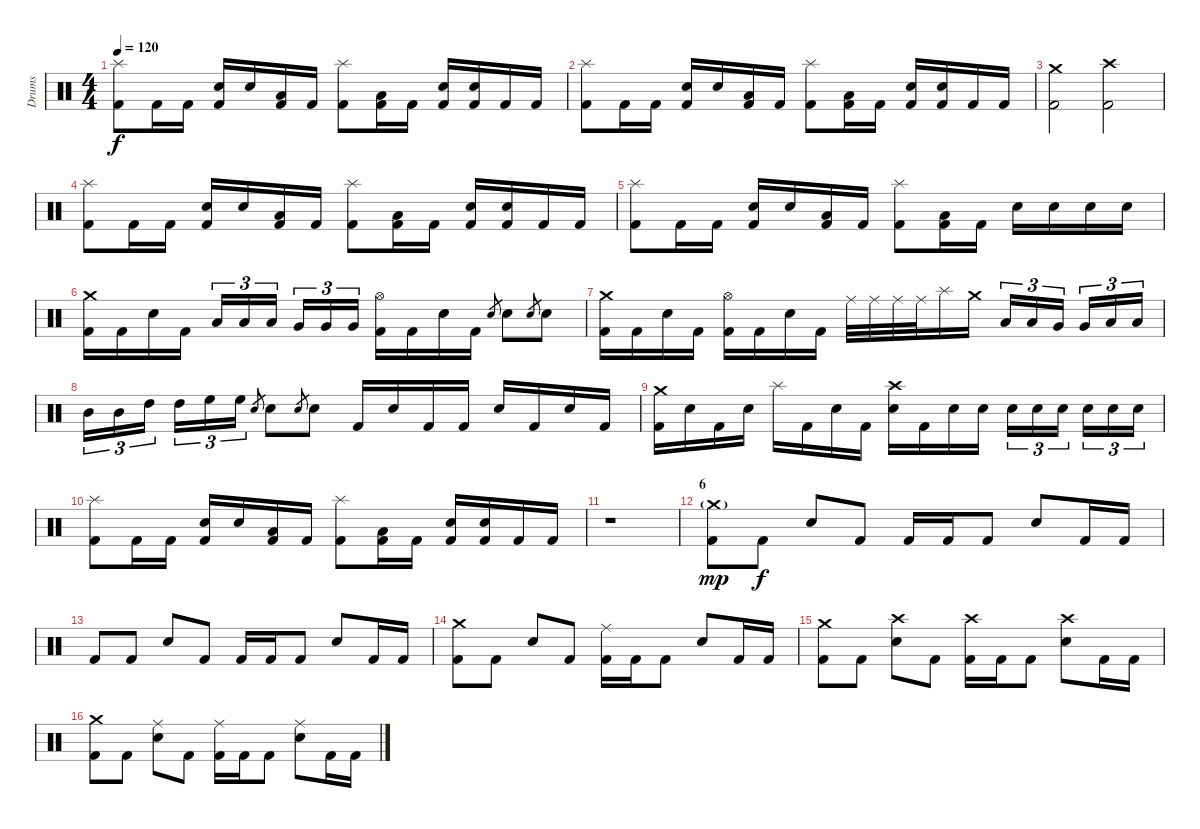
\track ("Drums" "Drums") {instrument percussion}
\staff {score}
\articulation defaults
\ts (4 4)
\tempo 120
\clef neutral
\ks c
("Splash (hit)" "Kick (hit) 2").8{dy f} "Kick (hit) 2".16 "Kick (hit) 2".16 ("Electric Snare (hit)" "Kick (hit) 2").16 "Electric Snare (hit)".16 ("Low Tom (hit)" "Kick (hit) 2").16 "Kick (hit) 2".16 ("Splash (hit)" "Kick (hit) 2").8 ("Low Tom (hit)" "Kick (hit) 2").16 "Kick (hit) 2".16 ("Electric Snare (hit)" "Kick (hit) 2").16 ("Electric Snare (hit)" "Kick (hit) 2").16 "Kick (hit) 2".16 "Kick (hit) 2".16 |
("Splash (hit)" "Kick (hit) 2").8 "Kick (hit) 2".16 "Kick (hit) 2".16 ("Electric Snare (hit)" "Kick (hit) 2").16 "Electric Snare (hit)".16 ("Low Tom (hit)" "Kick (hit) 2").16 "Kick (hit) 2".16 ("Splash (hit)" "Kick (hit) 2").8 ("Low Tom (hit)" "Kick (hit) 2").16 "Kick (hit) 2".16 ("Electric Snare (hit)" "Kick (hit) 2").16 ("Electric Snare (hit)" "Kick (hit) 2").16 "Kick (hit) 2".16 "Kick (hit) 2".16 |
("Crash medium (hit)" "Kick (hit) 2").2 ("Crash high (hit)" "Kick (hit) 2").2 |
("Splash (hit)" "Kick (hit) 2").8 "Kick (hit) 2".16 "Kick (hit) 2".16 ("Electric Snare (hit)" "Kick (hit) 2").16 "Electric Snare (hit)".16 ("Low Tom (hit)" "Kick (hit) 2").16 "Kick (hit) 2".16 ("Splash (hit)" "Kick (hit) 2").8 ("Low Tom (hit)" "Kick (hit) 2").16 "Kick (hit) 2".16 ("Electric Snare (hit)" "Kick (hit) 2").16 ("Electric Snare (hit)" "Kick (hit) 2").16 "Kick (hit) 2".16 "Kick (hit) 2".16 |
("Splash (hit)" "Kick (hit) 2").8 "Kick (hit) 2".16 "Kick (hit) 2".16 ("Electric Snare (hit)" "Kick (hit) 2").16 "Electric Snare (hit)".16 ("Low Tom (hit)" "Kick (hit) 2").16 "Kick (hit) 2".16 ("Splash (hit)" "Kick (hit) 2").8 ("Low Tom (hit)" "Kick (hit) 2").16 "Kick (hit) 2".16 "Electric Snare (hit)".16 "Electric Snare (hit)".16 "Electric Snare (hit)".16 "Electric Snare (hit)".16 |
("Crash medium (hit)" "Kick (hit) 2").16 "Kick (hit) 2".16 "Electric Snare (hit)".16 "Kick (hit) 2".16 "Low Tom (hit)".16{tu (3 2)} "Low Tom (hit)".16{tu (3 2)} "Low Tom (hit)".16{tu (3 2)} "Very Low Tom (hit)".16{tu (3 2)} "Very Low Tom (hit)".16{tu (3 2)} "Very Low Tom (hit)".16{tu (3 2)} ("Hi-Hat (open)" "Kick (hit) 2").16 "Kick (hit) 2".16 "Electric Snare (hit)".16 "Kick (hit) 2".16 "Electric Snare (hit)".8{gr} "Electric Snare (hit)".8 "Electric Snare (hit)".8{gr} "Electric Snare (hit)".8 |
("Crash medium (hit)" "Kick (hit) 2").16 "Kick (hit) 2".16 "Electric Snare (hit)".16 "Kick (hit) 2".16 ("Hi-Hat (open)" "Kick (hit) 2").16 "Kick (hit) 2".16 "Electric Snare (hit)".16 "Kick (hit) 2".16 "Ride (middle)".32 "Ride (middle)".32 "Ride (middle)".32 "Ride (middle)".32 "Splash (hit)".16 "Crash medium (hit)".16 "Low Floor Tom (hit)".16{tu (3 2)} "Low Floor Tom (hit)".16{tu (3 2)} "Very Low Tom (hit)".16{tu (3 2)} "Very Low Tom (hit)".16{tu (3 2)} "Low Tom (hit)".16{tu (3 2)} "Low Tom (hit)".16{tu (3 2)} |
"Mid Tom (hit)".16{tu (3 2)} "Mid Tom (hit)".16{tu (3 2)} "High Tom (hit)".16{tu (3 2)} "High Tom (hit)".16{tu (3 2)} "High Floor Tom (hit)".16{tu (3 2)} "High Floor Tom (hit)".16{tu (3 2)} "Electric Snare (hit)".8{gr} "Electric Snare (hit)".8 "Electric Snare (hit)".8{gr} "Electric Snare (hit)".8 "Kick (hit) 2".16 "Electric Snare (hit)".16 "Kick (hit) 2".16 "Kick (hit) 2".16 "Electric Snare (hit)".16 "Kick (hit) 2".16 "Electric Snare (hit)".16 "Kick (hit) 2".16 |
("Crash medium (hit)" "Kick (hit) 2").16 "Electric Snare (hit)".16 "Kick (hit) 2".16 "Electric Snare (hit)".16 "Splash (hit)".16 "Kick (hit) 2".16 "Electric Snare (hit)".16 "Kick (hit) 2".16 ("Crash high (hit)" "Electric Snare (hit)").16 "Kick (hit) 2".16 "Electric Snare (hit)".16 "Electric Snare (hit)".16 "Electric Snare (hit)".16{tu (3 2)} "Electric Snare (hit)".16{tu (3 2)} "Electric Snare (hit)".16{tu (3 2)} "Electric Snare (hit)".16{tu (3 2)} "Electric Snare (hit)".16{tu (3 2)} "Electric Snare (hit)".16{tu (3 2)} |
("Splash (hit)" "Kick (hit) 2").8 "Kick (hit) 2".16 "Kick (hit) 2".16 ("Electric Snare (hit)" "Kick (hit) 2").16 "Electric Snare (hit)".16 ("Low Tom (hit)" "Kick (hit) 2").16 "Kick (hit) 2".16 ("Splash (hit)" "Kick (hit) 2").8 ("Low Tom (hit)" "Kick (hit) 2").16 "Kick (hit) 2".16 ("Electric Snare (hit)" "Kick (hit) 2").16 ("Electric Snare (hit)" "Kick (hit) 2").16 "Kick (hit) 2".16 "Kick (hit) 2".16 |
r.1{volume 6} |
\section ("" "6")
("Crash medium (hit)"{g} "Kick (hit) 2").8{dy mp volume 14} "Kick (hit) 2".8{dy f} "Electric Snare (hit)".8 "Kick (hit) 2".8 "Kick (hit) 2".16 "Kick (hit) 2".16 "Kick (hit) 2".8 "Electric Snare (hit)".8 "Kick (hit) 2".16 "Kick (hit) 2".16 |
"Kick (hit) 2".8 "Kick (hit) 2".8 "Electric Snare (hit)".8 "Kick (hit) 2".8 "Kick (hit) 2".16 "Kick (hit) 2".16 "Kick (hit) 2".8 "Electric Snare (hit)".8 "Kick (hit) 2".16 "Kick (hit) 2".16 |
("Crash medium (hit)" "Kick (hit) 2").8 "Kick (hit) 2".8 "Electric Snare (hit)".8 "Kick (hit) 2".8 ("Ride (middle)" "Kick (hit) 2").16 "Kick (hit) 2".16 "Kick (hit) 2".8 "Electric Snare (hit)".8 "Kick (hit) 2".16 "Kick (hit) 2".16 |
("Crash medium (hit)" "Kick (hit) 2").8 "Kick (hit) 2".8 ("Crash high (hit)" "Electric Snare (hit)").8 "Kick (hit) 2".8 ("Crash high (hit)" "Kick (hit) 2").16 "Kick (hit) 2".16 "Kick (hit) 2".8 ("Crash high (hit)" "Electric Snare (hit)").8 "Kick (hit) 2".16 "Kick (hit) 2".16 |
("Crash medium (hit)" "Kick (hit) 2").8 "Kick (hit) 2".8 ("Ride (middle)" "Electric Snare (hit)").8 "Kick (hit) 2".8 ("Ride (middle)" "Kick (hit) 2").16 "Kick (hit) 2".16 "Kick (hit) 2".8 ("Ride (middle)" "Electric Snare (hit)").8 "Kick (hit) 2".16 "Kick (hit) 2".16
